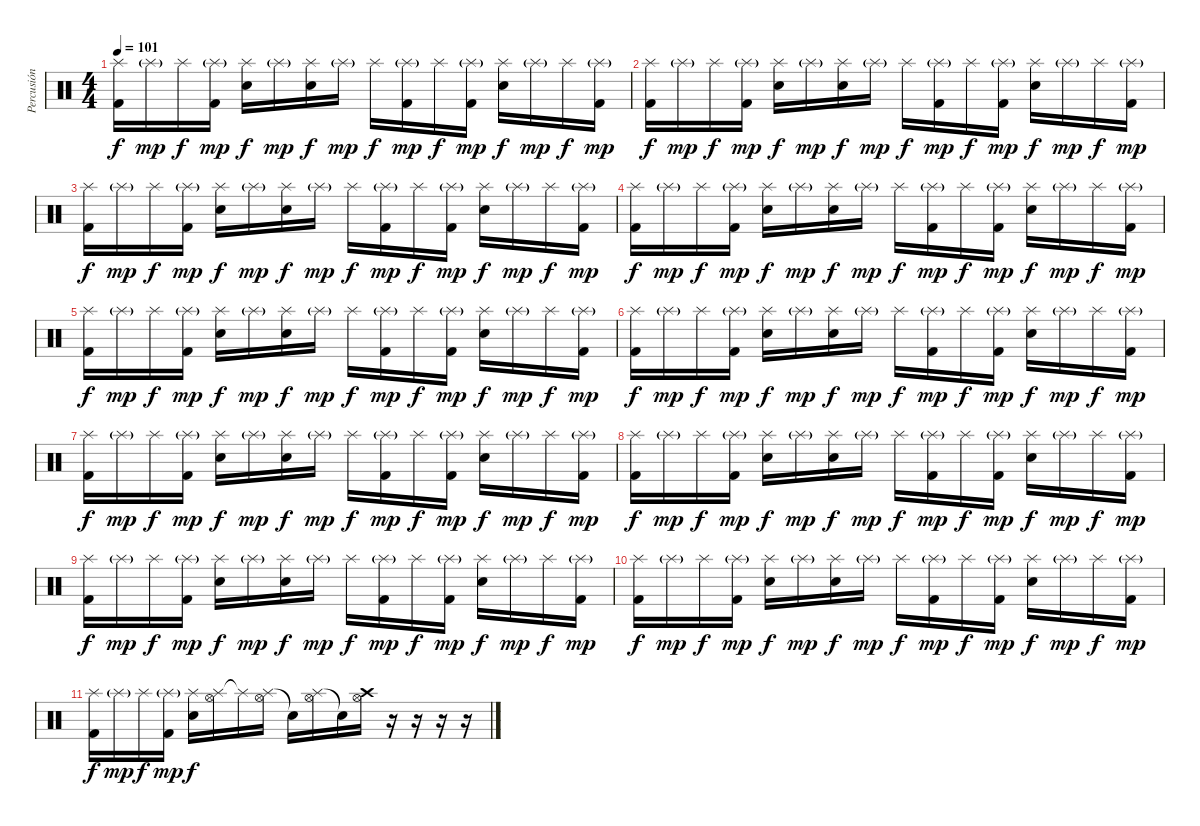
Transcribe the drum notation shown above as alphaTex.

\track ("Percusión" "Percusión") {instrument percussion}
\staff {score}
\articulation defaults
\ts (4 4)
\tempo 101
\clef neutral
\ks c
("Splash (hit)" "Kick (hit) 2").16{dy f} "Splash (hit)"{g}.16{dy mp} "Splash (hit)".16{dy f} ("Splash (hit)"{g} "Kick (hit) 2").16{dy mp} ("Splash (hit)" "Snare (hit) 2").16{dy f} "Splash (hit)"{g}.16{dy mp} ("Splash (hit)" "Snare (hit) 2").16{dy f} "Splash (hit)"{g}.16{dy mp} "Splash (hit)".16{dy f} ("Splash (hit)"{g} "Kick (hit) 2").16{dy mp} "Splash (hit)".16{dy f} ("Splash (hit)"{g} "Kick (hit) 2").16{dy mp} ("Splash (hit)" "Snare (hit) 2").16{dy f} "Splash (hit)"{g}.16{dy mp} "Splash (hit)".16{dy f} ("Splash (hit)"{g} "Kick (hit) 2").16{dy mp} |
("Splash (hit)" "Kick (hit) 2").16{dy f} "Splash (hit)"{g}.16{dy mp} "Splash (hit)".16{dy f} ("Splash (hit)"{g} "Kick (hit) 2").16{dy mp} ("Splash (hit)" "Snare (hit) 2").16{dy f} "Splash (hit)"{g}.16{dy mp} ("Splash (hit)" "Snare (hit) 2").16{dy f} "Splash (hit)"{g}.16{dy mp} "Splash (hit)".16{dy f} ("Splash (hit)"{g} "Kick (hit) 2").16{dy mp} "Splash (hit)".16{dy f} ("Splash (hit)"{g} "Kick (hit) 2").16{dy mp} ("Splash (hit)" "Snare (hit) 2").16{dy f} "Splash (hit)"{g}.16{dy mp} "Splash (hit)".16{dy f} ("Splash (hit)"{g} "Kick (hit) 2").16{dy mp} |
("Splash (hit)" "Kick (hit) 2").16{dy f} "Splash (hit)"{g}.16{dy mp} "Splash (hit)".16{dy f} ("Splash (hit)"{g} "Kick (hit) 2").16{dy mp} ("Splash (hit)" "Snare (hit) 2").16{dy f} "Splash (hit)"{g}.16{dy mp} ("Splash (hit)" "Snare (hit) 2").16{dy f} "Splash (hit)"{g}.16{dy mp} "Splash (hit)".16{dy f} ("Splash (hit)"{g} "Kick (hit) 2").16{dy mp} "Splash (hit)".16{dy f} ("Splash (hit)"{g} "Kick (hit) 2").16{dy mp} ("Splash (hit)" "Snare (hit) 2").16{dy f} "Splash (hit)"{g}.16{dy mp} "Splash (hit)".16{dy f} ("Splash (hit)"{g} "Kick (hit) 2").16{dy mp} |
("Splash (hit)" "Kick (hit) 2").16{dy f} "Splash (hit)"{g}.16{dy mp} "Splash (hit)".16{dy f} ("Splash (hit)"{g} "Kick (hit) 2").16{dy mp} ("Splash (hit)" "Snare (hit) 2").16{dy f} "Splash (hit)"{g}.16{dy mp} ("Splash (hit)" "Snare (hit) 2").16{dy f} "Splash (hit)"{g}.16{dy mp} "Splash (hit)".16{dy f} ("Splash (hit)"{g} "Kick (hit) 2").16{dy mp} "Splash (hit)".16{dy f} ("Splash (hit)"{g} "Kick (hit) 2").16{dy mp} ("Splash (hit)" "Snare (hit) 2").16{dy f} "Splash (hit)"{g}.16{dy mp} "Splash (hit)".16{dy f} ("Splash (hit)"{g} "Kick (hit) 2").16{dy mp} |
("Splash (hit)" "Kick (hit) 2").16{dy f} "Splash (hit)"{g}.16{dy mp} "Splash (hit)".16{dy f} ("Splash (hit)"{g} "Kick (hit) 2").16{dy mp} ("Splash (hit)" "Snare (hit) 2").16{dy f} "Splash (hit)"{g}.16{dy mp} ("Splash (hit)" "Snare (hit) 2").16{dy f} "Splash (hit)"{g}.16{dy mp} "Splash (hit)".16{dy f} ("Splash (hit)"{g} "Kick (hit) 2").16{dy mp} "Splash (hit)".16{dy f} ("Splash (hit)"{g} "Kick (hit) 2").16{dy mp} ("Splash (hit)" "Snare (hit) 2").16{dy f} "Splash (hit)"{g}.16{dy mp} "Splash (hit)".16{dy f} ("Splash (hit)"{g} "Kick (hit) 2").16{dy mp} |
("Splash (hit)" "Kick (hit) 2").16{dy f} "Splash (hit)"{g}.16{dy mp} "Splash (hit)".16{dy f} ("Splash (hit)"{g} "Kick (hit) 2").16{dy mp} ("Splash (hit)" "Snare (hit) 2").16{dy f} "Splash (hit)"{g}.16{dy mp} ("Splash (hit)" "Snare (hit) 2").16{dy f} "Splash (hit)"{g}.16{dy mp} "Splash (hit)".16{dy f} ("Splash (hit)"{g} "Kick (hit) 2").16{dy mp} "Splash (hit)".16{dy f} ("Splash (hit)"{g} "Kick (hit) 2").16{dy mp} ("Splash (hit)" "Snare (hit) 2").16{dy f} "Splash (hit)"{g}.16{dy mp} "Splash (hit)".16{dy f} ("Splash (hit)"{g} "Kick (hit) 2").16{dy mp} |
("Splash (hit)" "Kick (hit) 2").16{dy f} "Splash (hit)"{g}.16{dy mp} "Splash (hit)".16{dy f} ("Splash (hit)"{g} "Kick (hit) 2").16{dy mp} ("Splash (hit)" "Snare (hit) 2").16{dy f} "Splash (hit)"{g}.16{dy mp} ("Splash (hit)" "Snare (hit) 2").16{dy f} "Splash (hit)"{g}.16{dy mp} "Splash (hit)".16{dy f} ("Splash (hit)"{g} "Kick (hit) 2").16{dy mp} "Splash (hit)".16{dy f} ("Splash (hit)"{g} "Kick (hit) 2").16{dy mp} ("Splash (hit)" "Snare (hit) 2").16{dy f} "Splash (hit)"{g}.16{dy mp} "Splash (hit)".16{dy f} ("Splash (hit)"{g} "Kick (hit) 2").16{dy mp} |
("Splash (hit)" "Kick (hit) 2").16{dy f} "Splash (hit)"{g}.16{dy mp} "Splash (hit)".16{dy f} ("Splash (hit)"{g} "Kick (hit) 2").16{dy mp} ("Splash (hit)" "Snare (hit) 2").16{dy f} "Splash (hit)"{g}.16{dy mp} ("Splash (hit)" "Snare (hit) 2").16{dy f} "Splash (hit)"{g}.16{dy mp} "Splash (hit)".16{dy f} ("Splash (hit)"{g} "Kick (hit) 2").16{dy mp} "Splash (hit)".16{dy f} ("Splash (hit)"{g} "Kick (hit) 2").16{dy mp} ("Splash (hit)" "Snare (hit) 2").16{dy f} "Splash (hit)"{g}.16{dy mp} "Splash (hit)".16{dy f} ("Splash (hit)"{g} "Kick (hit) 2").16{dy mp} |
("Splash (hit)" "Kick (hit) 2").16{dy f} "Splash (hit)"{g}.16{dy mp} "Splash (hit)".16{dy f} ("Splash (hit)"{g} "Kick (hit) 2").16{dy mp} ("Splash (hit)" "Snare (hit) 2").16{dy f} "Splash (hit)"{g}.16{dy mp} ("Splash (hit)" "Snare (hit) 2").16{dy f} "Splash (hit)"{g}.16{dy mp} "Splash (hit)".16{dy f} ("Splash (hit)"{g} "Kick (hit) 2").16{dy mp} "Splash (hit)".16{dy f} ("Splash (hit)"{g} "Kick (hit) 2").16{dy mp} ("Splash (hit)" "Snare (hit) 2").16{dy f} "Splash (hit)"{g}.16{dy mp} "Splash (hit)".16{dy f} ("Splash (hit)"{g} "Kick (hit) 2").16{dy mp} |
("Splash (hit)" "Kick (hit) 2").16{dy f} "Splash (hit)"{g}.16{dy mp} "Splash (hit)".16{dy f} ("Splash (hit)"{g} "Kick (hit) 2").16{dy mp} ("Splash (hit)" "Snare (hit) 2").16{dy f} "Splash (hit)"{g}.16{dy mp} ("Splash (hit)" "Snare (hit) 2").16{dy f} "Splash (hit)"{g}.16{dy mp} "Splash (hit)".16{dy f} ("Splash (hit)"{g} "Kick (hit) 2").16{dy mp} "Splash (hit)".16{dy f} ("Splash (hit)"{g} "Kick (hit) 2").16{dy mp} ("Splash (hit)" "Snare (hit) 2").16{dy f} "Splash (hit)"{g}.16{dy mp} "Splash (hit)".16{dy f} ("Splash (hit)"{g} "Kick (hit) 2").16{dy mp} |
("Splash (hit)" "Kick (hit) 2").16{dy f} "Splash (hit)"{g}.16{dy mp} "Splash (hit)".16{dy f} ("Splash (hit)"{g} "Kick (hit) 2").16{dy mp} ("Splash (hit)" "Snare (hit) 2").16{dy f} ("Splash (hit)" "Hi-Hat (open)").16 "Splash (hit)"{t}.16 ("Splash (hit)" "Hi-Hat (open)").16 "Snare (hit)"{t}.16 ("Splash (hit)" "Hi-Hat (open)").16 "Snare (hit)"{t}.16 ("Crash high (hit)" "Hi-Hat (open)").16 r.16 r.16 r.16 r.16
